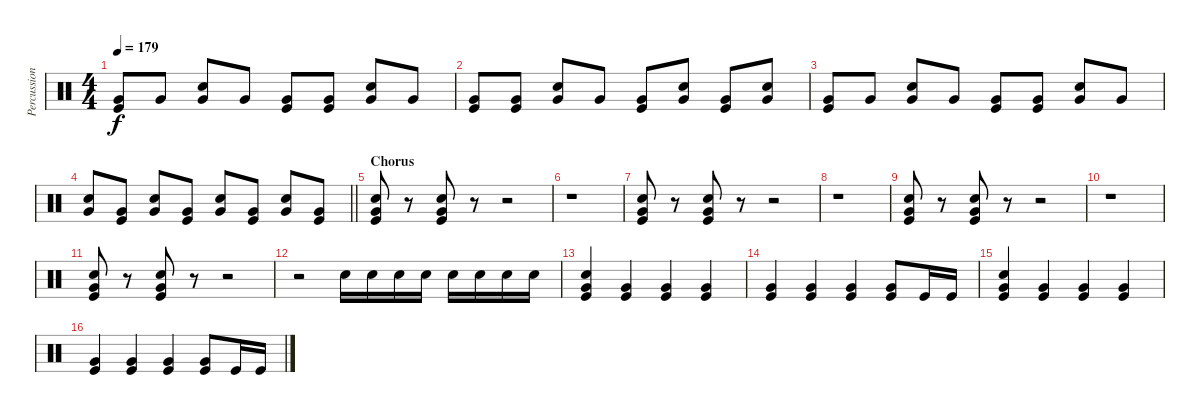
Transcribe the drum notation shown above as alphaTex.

\track ("Percussion" "Percussion") {instrument percussion}
\staff {score}
\articulation defaults
\ts (4 4)
\tempo 179
\clef neutral
\ks c
("Kick (hit)" "Very Low Tom (hit)").8{dy f} "Very Low Tom (hit)".8 ("Snare (hit) 2" "Very Low Tom (hit)").8 "Very Low Tom (hit)".8 ("Kick (hit)" "Very Low Tom (hit)").8 ("Kick (hit)" "Very Low Tom (hit)").8 ("Snare (hit) 2" "Very Low Tom (hit)").8 "Very Low Tom (hit)".8 |
("Kick (hit)" "Very Low Tom (hit)").8 ("Kick (hit)" "Very Low Tom (hit)").8 ("Snare (hit) 2" "Very Low Tom (hit)").8 "Very Low Tom (hit)".8 ("Kick (hit)" "Very Low Tom (hit)").8 ("Snare (hit) 2" "Very Low Tom (hit)").8 ("Kick (hit)" "Very Low Tom (hit)").8 ("Snare (hit) 2" "Very Low Tom (hit)").8 |
("Kick (hit)" "Very Low Tom (hit)").8 "Very Low Tom (hit)".8 ("Snare (hit) 2" "Very Low Tom (hit)").8 "Very Low Tom (hit)".8 ("Kick (hit)" "Very Low Tom (hit)").8 ("Kick (hit)" "Very Low Tom (hit)").8 ("Snare (hit) 2" "Very Low Tom (hit)").8 "Very Low Tom (hit)".8 |
\barLineRight lightlight
("Snare (hit) 2" "Very Low Tom (hit)").8 ("Kick (hit)" "Very Low Tom (hit)").8 ("Snare (hit) 2" "Very Low Tom (hit)").8 ("Kick (hit)" "Very Low Tom (hit)").8 ("Snare (hit) 2" "Very Low Tom (hit)").8 ("Kick (hit)" "Very Low Tom (hit)").8 ("Snare (hit) 2" "Very Low Tom (hit)").8 ("Kick (hit)" "Very Low Tom (hit)").8 |
\section ("" "Chorus")
("Kick (hit)" "Snare (hit) 2" "Very Low Tom (hit)").8 r.8 ("Kick (hit)" "Snare (hit) 2" "Very Low Tom (hit)").8 r.8 r.2 |
r.1 |
("Kick (hit)" "Snare (hit) 2" "Very Low Tom (hit)").8 r.8 ("Kick (hit)" "Snare (hit) 2" "Very Low Tom (hit)").8 r.8 r.2 |
r.1 |
("Kick (hit)" "Snare (hit) 2" "Very Low Tom (hit)").8 r.8 ("Kick (hit)" "Snare (hit) 2" "Very Low Tom (hit)").8 r.8 r.2 |
r.1 |
("Kick (hit)" "Snare (hit) 2" "Very Low Tom (hit)").8 r.8 ("Kick (hit)" "Snare (hit) 2" "Very Low Tom (hit)").8 r.8 r.2 |
r.2{volume 0} "Snare (hit) 2".16{volume 12} "Snare (hit) 2".16 "Snare (hit) 2".16 "Snare (hit) 2".16 "Snare (hit) 2".16 "Snare (hit) 2".16 "Snare (hit) 2".16 "Snare (hit) 2".16 |
("Kick (hit)" "Snare (hit) 2" "Very Low Tom (hit)").4 ("Kick (hit)" "Very Low Tom (hit)").4 ("Kick (hit)" "Very Low Tom (hit)").4 ("Kick (hit)" "Very Low Tom (hit)").4 |
("Kick (hit)" "Very Low Tom (hit)").4 ("Kick (hit)" "Very Low Tom (hit)").4 ("Kick (hit)" "Very Low Tom (hit)").4 ("Kick (hit)" "Very Low Tom (hit)").8 "Kick (hit)".16 "Kick (hit)".16 |
("Kick (hit)" "Snare (hit) 2" "Very Low Tom (hit)").4 ("Kick (hit)" "Very Low Tom (hit)").4 ("Kick (hit)" "Very Low Tom (hit)").4 ("Kick (hit)" "Very Low Tom (hit)").4 |
("Kick (hit)" "Very Low Tom (hit)").4 ("Kick (hit)" "Very Low Tom (hit)").4 ("Kick (hit)" "Very Low Tom (hit)").4 ("Kick (hit)" "Very Low Tom (hit)").8 "Kick (hit)".16 "Kick (hit)".16
